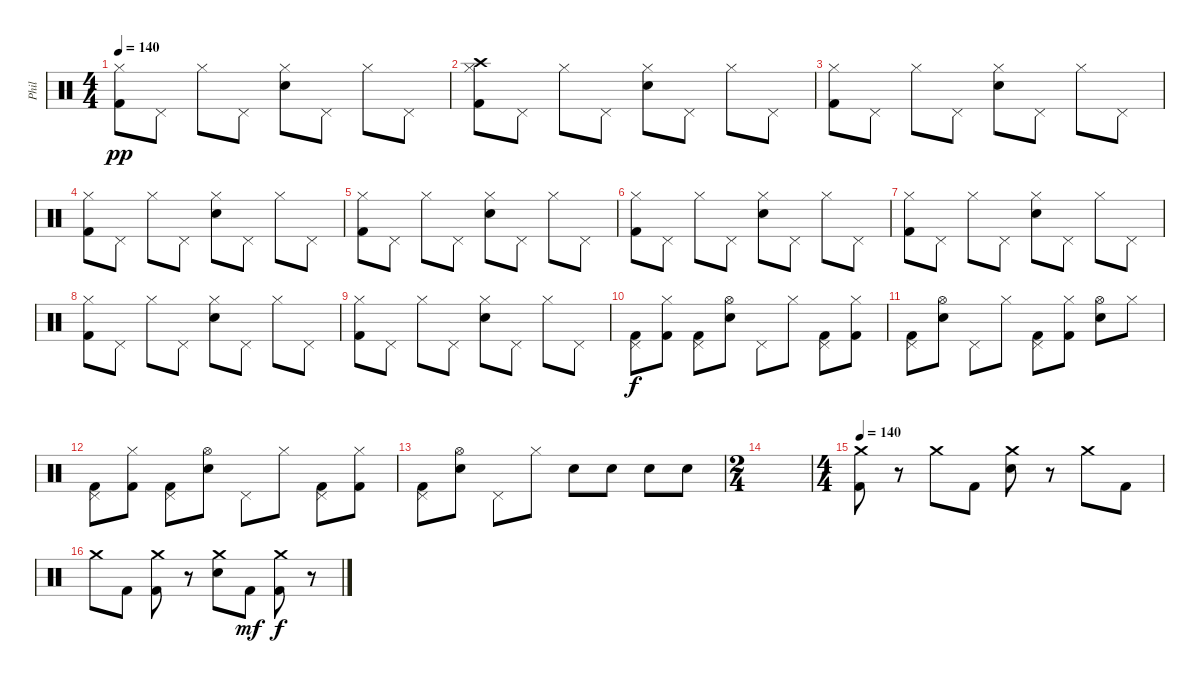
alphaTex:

\track ("Phil" "Phil") {instrument percussion}
\staff {score}
\articulation defaults
\ts (4 4)
\tempo 140
\clef neutral
\ks c
("Hi-Hat (closed)" "Kick (hit) 2").8{dy pp} "Pedal Hi-Hat (hit)".8 "Hi-Hat (closed)".8 "Pedal Hi-Hat (hit)".8 ("Hi-Hat (closed)" "Snare (hit) 2").8 "Pedal Hi-Hat (hit)".8 "Hi-Hat (closed)".8 "Pedal Hi-Hat (hit)".8 |
("Hi-Hat (closed)" "Crash high (hit)" "Kick (hit) 2").8 "Pedal Hi-Hat (hit)".8 "Hi-Hat (closed)".8 "Pedal Hi-Hat (hit)".8 ("Hi-Hat (closed)" "Snare (hit) 2").8 "Pedal Hi-Hat (hit)".8 "Hi-Hat (closed)".8 "Pedal Hi-Hat (hit)".8 |
("Hi-Hat (closed)" "Kick (hit) 2").8 "Pedal Hi-Hat (hit)".8 "Hi-Hat (closed)".8 "Pedal Hi-Hat (hit)".8 ("Hi-Hat (closed)" "Snare (hit) 2").8 "Pedal Hi-Hat (hit)".8 "Hi-Hat (closed)".8 "Pedal Hi-Hat (hit)".8 |
("Hi-Hat (closed)" "Kick (hit) 2").8 "Pedal Hi-Hat (hit)".8 "Hi-Hat (closed)".8 "Pedal Hi-Hat (hit)".8 ("Hi-Hat (closed)" "Snare (hit) 2").8 "Pedal Hi-Hat (hit)".8 "Hi-Hat (closed)".8 "Pedal Hi-Hat (hit)".8 |
("Hi-Hat (closed)" "Kick (hit) 2").8 "Pedal Hi-Hat (hit)".8 "Hi-Hat (closed)".8 "Pedal Hi-Hat (hit)".8 ("Hi-Hat (closed)" "Snare (hit) 2").8 "Pedal Hi-Hat (hit)".8 "Hi-Hat (closed)".8 "Pedal Hi-Hat (hit)".8 |
("Hi-Hat (closed)" "Kick (hit) 2").8 "Pedal Hi-Hat (hit)".8 "Hi-Hat (closed)".8 "Pedal Hi-Hat (hit)".8 ("Hi-Hat (closed)" "Snare (hit) 2").8 "Pedal Hi-Hat (hit)".8 "Hi-Hat (closed)".8 "Pedal Hi-Hat (hit)".8 |
("Hi-Hat (closed)" "Kick (hit) 2").8 "Pedal Hi-Hat (hit)".8 "Hi-Hat (closed)".8 "Pedal Hi-Hat (hit)".8 ("Hi-Hat (closed)" "Snare (hit) 2").8 "Pedal Hi-Hat (hit)".8 "Hi-Hat (closed)".8 "Pedal Hi-Hat (hit)".8 |
("Hi-Hat (closed)" "Kick (hit) 2").8 "Pedal Hi-Hat (hit)".8 "Hi-Hat (closed)".8 "Pedal Hi-Hat (hit)".8 ("Hi-Hat (closed)" "Snare (hit) 2").8 "Pedal Hi-Hat (hit)".8 "Hi-Hat (closed)".8 "Pedal Hi-Hat (hit)".8 |
("Hi-Hat (closed)" "Kick (hit) 2").8 "Pedal Hi-Hat (hit)".8 "Hi-Hat (closed)".8 "Pedal Hi-Hat (hit)".8 ("Hi-Hat (closed)" "Snare (hit) 2").8 "Pedal Hi-Hat (hit)".8 "Hi-Hat (closed)".8 "Pedal Hi-Hat (hit)".8 |
("Pedal Hi-Hat (hit)" "Kick (hit) 2").8{dy f} ("Hi-Hat (closed)" "Kick (hit) 2").8 ("Pedal Hi-Hat (hit)" "Kick (hit) 2").8 ("Hi-Hat (open)" "Snare (hit) 2").8 "Pedal Hi-Hat (hit)".8 "Hi-Hat (closed)".8 ("Pedal Hi-Hat (hit)" "Kick (hit) 2").8 ("Hi-Hat (closed)" "Kick (hit) 2").8 |
("Pedal Hi-Hat (hit)" "Kick (hit) 2").8 ("Hi-Hat (open)" "Snare (hit) 2").8 "Pedal Hi-Hat (hit)".8 "Hi-Hat (closed)".8 ("Pedal Hi-Hat (hit)" "Kick (hit) 2").8 ("Hi-Hat (closed)" "Kick (hit) 2").8 ("Hi-Hat (open)" "Snare (hit) 2").8 "Hi-Hat (closed)".8 |
("Pedal Hi-Hat (hit)" "Kick (hit) 2").8 ("Hi-Hat (closed)" "Kick (hit) 2").8 ("Pedal Hi-Hat (hit)" "Kick (hit) 2").8 ("Hi-Hat (open)" "Snare (hit) 2").8 "Pedal Hi-Hat (hit)".8 "Hi-Hat (closed)".8 ("Pedal Hi-Hat (hit)" "Kick (hit) 2").8 ("Hi-Hat (closed)" "Kick (hit) 2").8 |
("Pedal Hi-Hat (hit)" "Kick (hit) 2").8 ("Hi-Hat (open)" "Snare (hit) 2").8 "Pedal Hi-Hat (hit)".8 "Hi-Hat (closed)".8 "Snare (hit) 2".8 "Snare (hit) 2".8 "Snare (hit) 2".8 "Snare (hit) 2".8 |
\ts (2 4)
|
\ts (4 4)
\tempo 140
("Crash medium (hit)" "Kick (hit) 2").8 r.8 "Crash medium (hit)".8 "Kick (hit) 2".8 ("Crash medium (hit)" "Snare (hit) 2").8 r.8 "Crash medium (hit)".8 "Kick (hit) 2".8 |
"Crash medium (hit)".8 "Kick (hit) 2".8 ("Crash medium (hit)" "Kick (hit) 2").8 r.8 ("Crash medium (hit)" "Snare (hit) 2").8 "Kick (hit) 2".8{dy mf} ("Crash medium (hit)" "Kick (hit) 2").8{dy f} r.8
